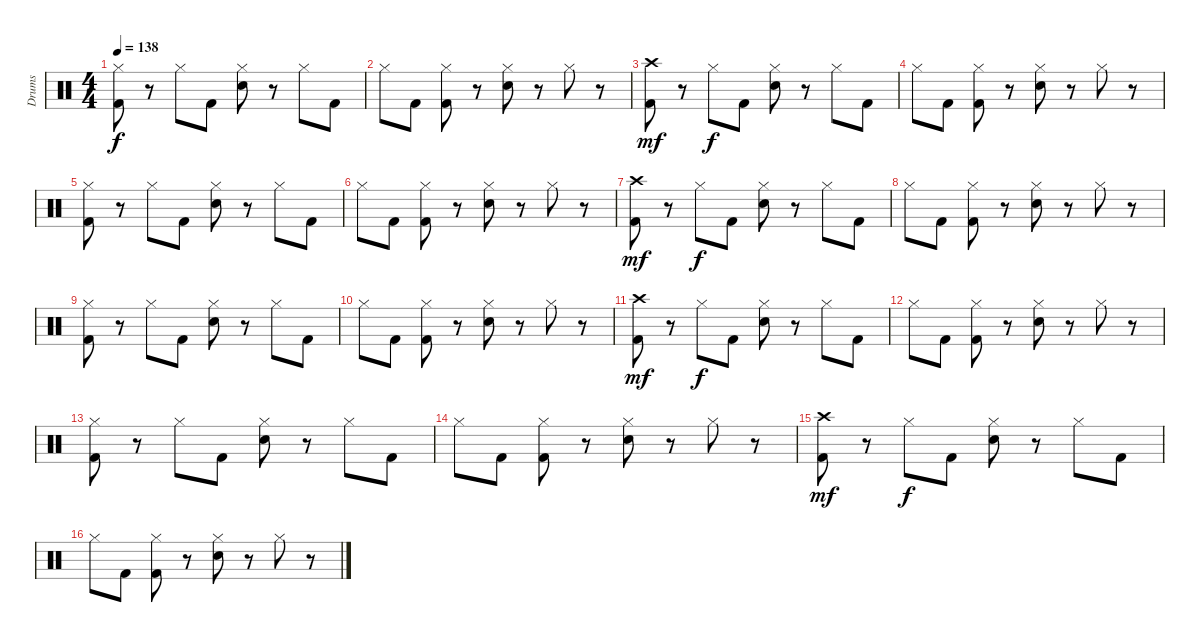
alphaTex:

\track ("Drums" "Drums") {instrument percussion}
\staff {score}
\articulation defaults
\ts (4 4)
\tempo 138
\clef neutral
\ks c
("Hi-Hat (closed)" "Kick (hit) 2").8{dy f} r.8 "Hi-Hat (closed)".8 "Kick (hit) 2".8 ("Hi-Hat (closed)" "Electric Snare (hit)").8 r.8 "Hi-Hat (closed)".8 "Kick (hit) 2".8 |
"Hi-Hat (closed)".8 "Kick (hit) 2".8 ("Hi-Hat (closed)" "Kick (hit) 2").8 r.8 ("Hi-Hat (closed)" "Electric Snare (hit)").8 r.8 "Hi-Hat (closed)".8 r.8 |
("Crash high (hit)" "Kick (hit) 2").8{dy mf} r.8 "Hi-Hat (closed)".8{dy f} "Kick (hit) 2".8 ("Hi-Hat (closed)" "Electric Snare (hit)").8 r.8 "Hi-Hat (closed)".8 "Kick (hit) 2".8 |
"Hi-Hat (closed)".8 "Kick (hit) 2".8 ("Hi-Hat (closed)" "Kick (hit) 2").8 r.8 ("Hi-Hat (closed)" "Electric Snare (hit)").8 r.8 "Hi-Hat (closed)".8 r.8 |
("Hi-Hat (closed)" "Kick (hit) 2").8 r.8 "Hi-Hat (closed)".8 "Kick (hit) 2".8 ("Hi-Hat (closed)" "Electric Snare (hit)").8 r.8 "Hi-Hat (closed)".8 "Kick (hit) 2".8 |
"Hi-Hat (closed)".8 "Kick (hit) 2".8 ("Hi-Hat (closed)" "Kick (hit) 2").8 r.8 ("Hi-Hat (closed)" "Electric Snare (hit)").8 r.8 "Hi-Hat (closed)".8 r.8 |
("Crash high (hit)" "Kick (hit) 2").8{dy mf} r.8 "Hi-Hat (closed)".8{dy f} "Kick (hit) 2".8 ("Hi-Hat (closed)" "Electric Snare (hit)").8 r.8 "Hi-Hat (closed)".8 "Kick (hit) 2".8 |
"Hi-Hat (closed)".8 "Kick (hit) 2".8 ("Hi-Hat (closed)" "Kick (hit) 2").8 r.8 ("Hi-Hat (closed)" "Electric Snare (hit)").8 r.8 "Hi-Hat (closed)".8 r.8 |
("Hi-Hat (closed)" "Kick (hit) 2").8 r.8 "Hi-Hat (closed)".8 "Kick (hit) 2".8 ("Hi-Hat (closed)" "Electric Snare (hit)").8 r.8 "Hi-Hat (closed)".8 "Kick (hit) 2".8 |
"Hi-Hat (closed)".8 "Kick (hit) 2".8 ("Hi-Hat (closed)" "Kick (hit) 2").8 r.8 ("Hi-Hat (closed)" "Electric Snare (hit)").8 r.8 "Hi-Hat (closed)".8 r.8 |
("Crash high (hit)" "Kick (hit) 2").8{dy mf} r.8 "Hi-Hat (closed)".8{dy f} "Kick (hit) 2".8 ("Hi-Hat (closed)" "Electric Snare (hit)").8 r.8 "Hi-Hat (closed)".8 "Kick (hit) 2".8 |
"Hi-Hat (closed)".8 "Kick (hit) 2".8 ("Hi-Hat (closed)" "Kick (hit) 2").8 r.8 ("Hi-Hat (closed)" "Electric Snare (hit)").8 r.8 "Hi-Hat (closed)".8 r.8 |
("Hi-Hat (closed)" "Kick (hit) 2").8 r.8 "Hi-Hat (closed)".8 "Kick (hit) 2".8 ("Hi-Hat (closed)" "Electric Snare (hit)").8 r.8 "Hi-Hat (closed)".8 "Kick (hit) 2".8 |
"Hi-Hat (closed)".8 "Kick (hit) 2".8 ("Hi-Hat (closed)" "Kick (hit) 2").8 r.8 ("Hi-Hat (closed)" "Electric Snare (hit)").8 r.8 "Hi-Hat (closed)".8 r.8 |
("Crash high (hit)" "Kick (hit) 2").8{dy mf} r.8 "Hi-Hat (closed)".8{dy f} "Kick (hit) 2".8 ("Hi-Hat (closed)" "Electric Snare (hit)").8 r.8 "Hi-Hat (closed)".8 "Kick (hit) 2".8 |
"Hi-Hat (closed)".8 "Kick (hit) 2".8 ("Hi-Hat (closed)" "Kick (hit) 2").8 r.8 ("Hi-Hat (closed)" "Electric Snare (hit)").8 r.8 "Hi-Hat (closed)".8 r.8
